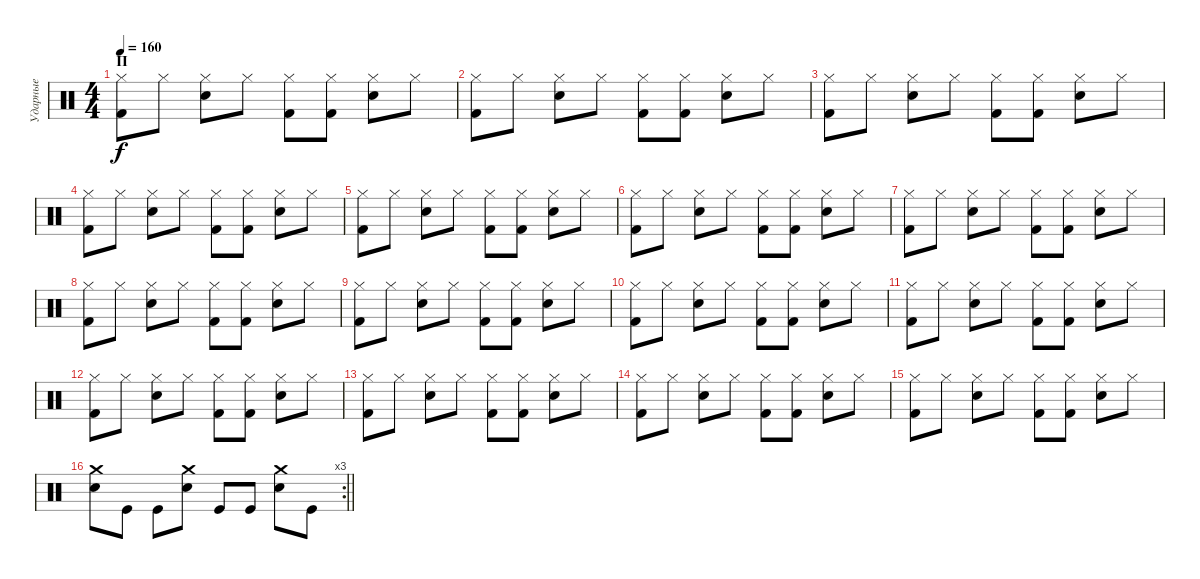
\track ("Ударные" "Ударные") {instrument percussion}
\staff {score}
\articulation defaults
\ts (4 4)
\section ("" "П")
\tempo 160
\clef neutral
\ks c
("Kick (hit) 2" "Hi-Hat (closed)").8{dy f} "Hi-Hat (closed)".8 ("Hi-Hat (closed)" "Electric Snare (hit)").8 "Hi-Hat (closed)".8 ("Kick (hit) 2" "Hi-Hat (closed)").8 ("Kick (hit) 2" "Hi-Hat (closed)").8 ("Hi-Hat (closed)" "Electric Snare (hit)").8 "Hi-Hat (closed)".8 |
("Kick (hit) 2" "Hi-Hat (closed)").8 "Hi-Hat (closed)".8 ("Hi-Hat (closed)" "Electric Snare (hit)").8 "Hi-Hat (closed)".8 ("Kick (hit) 2" "Hi-Hat (closed)").8 ("Kick (hit) 2" "Hi-Hat (closed)").8 ("Hi-Hat (closed)" "Electric Snare (hit)").8 "Hi-Hat (closed)".8 |
("Kick (hit) 2" "Hi-Hat (closed)").8 "Hi-Hat (closed)".8 ("Hi-Hat (closed)" "Electric Snare (hit)").8 "Hi-Hat (closed)".8 ("Kick (hit) 2" "Hi-Hat (closed)").8 ("Kick (hit) 2" "Hi-Hat (closed)").8 ("Hi-Hat (closed)" "Electric Snare (hit)").8 "Hi-Hat (closed)".8 |
("Kick (hit) 2" "Hi-Hat (closed)").8 "Hi-Hat (closed)".8 ("Hi-Hat (closed)" "Electric Snare (hit)").8 "Hi-Hat (closed)".8 ("Kick (hit) 2" "Hi-Hat (closed)").8 ("Kick (hit) 2" "Hi-Hat (closed)").8 ("Hi-Hat (closed)" "Electric Snare (hit)").8 "Hi-Hat (closed)".8 |
("Kick (hit) 2" "Hi-Hat (closed)").8 "Hi-Hat (closed)".8 ("Hi-Hat (closed)" "Electric Snare (hit)").8 "Hi-Hat (closed)".8 ("Kick (hit) 2" "Hi-Hat (closed)").8 ("Kick (hit) 2" "Hi-Hat (closed)").8 ("Hi-Hat (closed)" "Electric Snare (hit)").8 "Hi-Hat (closed)".8 |
("Kick (hit) 2" "Hi-Hat (closed)").8 "Hi-Hat (closed)".8 ("Hi-Hat (closed)" "Electric Snare (hit)").8 "Hi-Hat (closed)".8 ("Kick (hit) 2" "Hi-Hat (closed)").8 ("Kick (hit) 2" "Hi-Hat (closed)").8 ("Hi-Hat (closed)" "Electric Snare (hit)").8 "Hi-Hat (closed)".8 |
("Kick (hit) 2" "Hi-Hat (closed)").8 "Hi-Hat (closed)".8 ("Hi-Hat (closed)" "Electric Snare (hit)").8 "Hi-Hat (closed)".8 ("Kick (hit) 2" "Hi-Hat (closed)").8 ("Kick (hit) 2" "Hi-Hat (closed)").8 ("Hi-Hat (closed)" "Electric Snare (hit)").8 "Hi-Hat (closed)".8 |
("Kick (hit) 2" "Hi-Hat (closed)").8 "Hi-Hat (closed)".8 ("Hi-Hat (closed)" "Electric Snare (hit)").8 "Hi-Hat (closed)".8 ("Kick (hit) 2" "Hi-Hat (closed)").8 ("Kick (hit) 2" "Hi-Hat (closed)").8 ("Hi-Hat (closed)" "Electric Snare (hit)").8 "Hi-Hat (closed)".8 |
("Kick (hit) 2" "Hi-Hat (closed)").8 "Hi-Hat (closed)".8 ("Hi-Hat (closed)" "Electric Snare (hit)").8 "Hi-Hat (closed)".8 ("Kick (hit) 2" "Hi-Hat (closed)").8 ("Kick (hit) 2" "Hi-Hat (closed)").8 ("Hi-Hat (closed)" "Electric Snare (hit)").8 "Hi-Hat (closed)".8 |
("Kick (hit) 2" "Hi-Hat (closed)").8 "Hi-Hat (closed)".8 ("Hi-Hat (closed)" "Electric Snare (hit)").8 "Hi-Hat (closed)".8 ("Kick (hit) 2" "Hi-Hat (closed)").8 ("Kick (hit) 2" "Hi-Hat (closed)").8 ("Hi-Hat (closed)" "Electric Snare (hit)").8 "Hi-Hat (closed)".8 |
("Kick (hit) 2" "Hi-Hat (closed)").8 "Hi-Hat (closed)".8 ("Hi-Hat (closed)" "Electric Snare (hit)").8 "Hi-Hat (closed)".8 ("Kick (hit) 2" "Hi-Hat (closed)").8 ("Kick (hit) 2" "Hi-Hat (closed)").8 ("Hi-Hat (closed)" "Electric Snare (hit)").8 "Hi-Hat (closed)".8 |
("Kick (hit) 2" "Hi-Hat (closed)").8 "Hi-Hat (closed)".8 ("Hi-Hat (closed)" "Electric Snare (hit)").8 "Hi-Hat (closed)".8 ("Kick (hit) 2" "Hi-Hat (closed)").8 ("Kick (hit) 2" "Hi-Hat (closed)").8 ("Hi-Hat (closed)" "Electric Snare (hit)").8 "Hi-Hat (closed)".8 |
("Kick (hit) 2" "Hi-Hat (closed)").8 "Hi-Hat (closed)".8 ("Hi-Hat (closed)" "Electric Snare (hit)").8 "Hi-Hat (closed)".8 ("Kick (hit) 2" "Hi-Hat (closed)").8 ("Kick (hit) 2" "Hi-Hat (closed)").8 ("Hi-Hat (closed)" "Electric Snare (hit)").8 "Hi-Hat (closed)".8 |
("Kick (hit) 2" "Hi-Hat (closed)").8 "Hi-Hat (closed)".8 ("Hi-Hat (closed)" "Electric Snare (hit)").8 "Hi-Hat (closed)".8 ("Kick (hit) 2" "Hi-Hat (closed)").8 ("Kick (hit) 2" "Hi-Hat (closed)").8 ("Hi-Hat (closed)" "Electric Snare (hit)").8 "Hi-Hat (closed)".8 |
("Kick (hit) 2" "Hi-Hat (closed)").8 "Hi-Hat (closed)".8 ("Hi-Hat (closed)" "Electric Snare (hit)").8 "Hi-Hat (closed)".8 ("Kick (hit) 2" "Hi-Hat (closed)").8 ("Kick (hit) 2" "Hi-Hat (closed)").8 ("Hi-Hat (closed)" "Electric Snare (hit)").8 "Hi-Hat (closed)".8 |
\rc 3
\barLineRight lightlight
("Crash medium (hit)" "Electric Snare (hit)").8 "Kick (hit)".8 "Kick (hit)".8 ("Crash medium (hit)" "Electric Snare (hit)").8 "Kick (hit)".8 "Kick (hit)".8 ("Crash medium (hit)" "Electric Snare (hit)").8 "Kick (hit)".8
